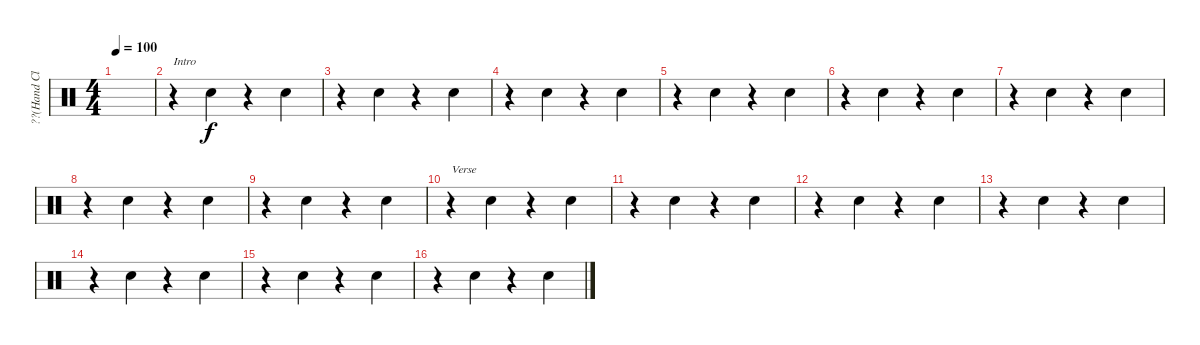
\track ("??(Hand Clap)" "??(Hand Cl") {instrument percussion}
\staff {score}
\articulation defaults
\ts (4 4)
\tempo 100
\clef neutral
\ks c
|
r.4{txt "Intro"} "Hand Clap (hit)".4 r.4 "Hand Clap (hit)".4 |
r.4 "Hand Clap (hit)".4 r.4 "Hand Clap (hit)".4 |
r.4 "Hand Clap (hit)".4 r.4 "Hand Clap (hit)".4 |
r.4 "Hand Clap (hit)".4 r.4 "Hand Clap (hit)".4 |
r.4 "Hand Clap (hit)".4 r.4 "Hand Clap (hit)".4 |
r.4 "Hand Clap (hit)".4 r.4 "Hand Clap (hit)".4 |
r.4 "Hand Clap (hit)".4 r.4 "Hand Clap (hit)".4 |
r.4 "Hand Clap (hit)".4 r.4 "Hand Clap (hit)".4 |
r.4{txt "Verse"} "Hand Clap (hit)".4 r.4 "Hand Clap (hit)".4 |
r.4 "Hand Clap (hit)".4 r.4 "Hand Clap (hit)".4 |
r.4 "Hand Clap (hit)".4 r.4 "Hand Clap (hit)".4 |
r.4 "Hand Clap (hit)".4 r.4 "Hand Clap (hit)".4 |
r.4 "Hand Clap (hit)".4 r.4 "Hand Clap (hit)".4 |
r.4 "Hand Clap (hit)".4 r.4 "Hand Clap (hit)".4 |
r.4 "Hand Clap (hit)".4 r.4 "Hand Clap (hit)".4
